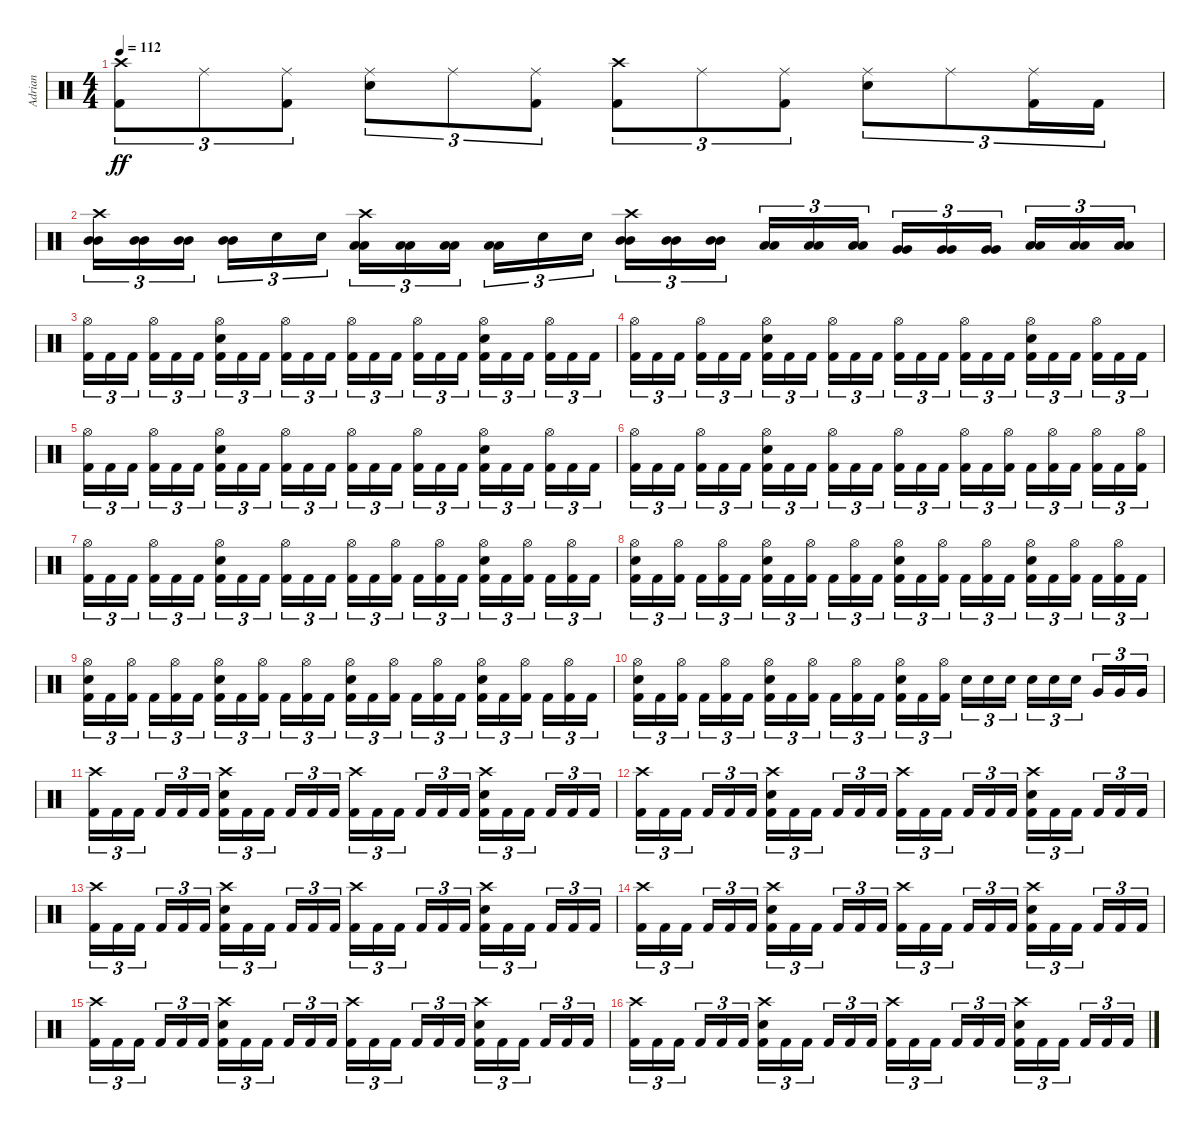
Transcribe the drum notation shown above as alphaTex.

\track ("Adrian" "Adrian") {instrument percussion}
\staff {score}
\articulation defaults
\ts (4 4)
\tempo 112
\clef neutral
\ks c
("Crash high (hit)" "Kick (hit) 2").8{tu (3 2) dy ff} "Ride (middle)".8{tu (3 2)} ("Ride (middle)" "Kick (hit) 2").8{tu (3 2)} ("Ride (middle)" "Electric Snare (hit)").8{tu (3 2)} "Ride (middle)".8{tu (3 2)} ("Ride (middle)" "Kick (hit) 2").8{tu (3 2)} ("Crash high (hit)" "Kick (hit) 2").8{tu (3 2)} "Ride (middle)".8{tu (3 2)} ("Ride (middle)" "Kick (hit) 2").8{tu (3 2)} ("Ride (middle)" "Electric Snare (hit)").8{tu (3 2)} "Ride (middle)".8{tu (3 2)} ("Ride (middle)" "Kick (hit) 2").16{tu (3 2)} "Kick (hit) 2".16{tu (3 2)} |
("Mid Tom (hit)" "Mid Tom (hit)" "Crash high (hit)").16{tu (3 2)} ("Mid Tom (hit)" "Mid Tom (hit)").16{tu (3 2)} ("Mid Tom (hit)" "Mid Tom (hit)").16{tu (3 2) beam splitsecondary} ("Mid Tom (hit)" "Mid Tom (hit)").16{tu (3 2)} "Electric Snare (hit)".16{tu (3 2)} "Electric Snare (hit)".16{tu (3 2)} ("Low Tom (hit)" "Low Tom (hit)" "Crash high (hit)").16{tu (3 2)} ("Low Tom (hit)" "Low Tom (hit)").16{tu (3 2)} ("Low Tom (hit)" "Low Tom (hit)").16{tu (3 2) beam splitsecondary} ("Low Tom (hit)" "Low Tom (hit)").16{tu (3 2)} "Electric Snare (hit)".16{tu (3 2)} "Electric Snare (hit)".16{tu (3 2)} ("Mid Tom (hit)" "Mid Tom (hit)" "Crash high (hit)").16{tu (3 2)} ("Mid Tom (hit)" "Mid Tom (hit)").16{tu (3 2)} ("Mid Tom (hit)" "Mid Tom (hit)").16{tu (3 2) beam splitsecondary} ("Low Tom (hit)" "Low Tom (hit)").16{tu (3 2)} ("Low Tom (hit)" "Low Tom (hit)").16{tu (3 2)} ("Low Tom (hit)" "Low Tom (hit)").16{tu (3 2)} ("Very Low Tom (hit)" "Very Low Tom (hit)").16{tu (3 2)} ("Very Low Tom (hit)" "Very Low Tom (hit)").16{tu (3 2)} ("Very Low Tom (hit)" "Very Low Tom (hit)").16{tu (3 2) beam splitsecondary} ("Low Floor Tom (hit)" "Low Floor Tom (hit)").16{tu (3 2)} ("Low Floor Tom (hit)" "Low Floor Tom (hit)").16{tu (3 2)} ("Low Floor Tom (hit)" "Low Floor Tom (hit)").16{tu (3 2)} |
("Hi-Hat (open)" "Kick (hit) 2").16{tu (3 2)} "Kick (hit) 2".16{tu (3 2)} "Kick (hit) 2".16{tu (3 2) beam splitsecondary} ("Hi-Hat (open)" "Kick (hit) 2").16{tu (3 2)} "Kick (hit) 2".16{tu (3 2)} "Kick (hit) 2".16{tu (3 2)} ("Hi-Hat (open)" "Electric Snare (hit)" "Kick (hit) 2").16{tu (3 2)} "Kick (hit) 2".16{tu (3 2)} "Kick (hit) 2".16{tu (3 2) beam splitsecondary} ("Hi-Hat (open)" "Kick (hit) 2").16{tu (3 2)} "Kick (hit) 2".16{tu (3 2)} "Kick (hit) 2".16{tu (3 2)} ("Hi-Hat (open)" "Kick (hit) 2").16{tu (3 2)} "Kick (hit) 2".16{tu (3 2)} "Kick (hit) 2".16{tu (3 2) beam splitsecondary} ("Hi-Hat (open)" "Kick (hit) 2").16{tu (3 2)} "Kick (hit) 2".16{tu (3 2)} "Kick (hit) 2".16{tu (3 2)} ("Hi-Hat (open)" "Electric Snare (hit)" "Kick (hit) 2").16{tu (3 2)} "Kick (hit) 2".16{tu (3 2)} "Kick (hit) 2".16{tu (3 2) beam splitsecondary} ("Hi-Hat (open)" "Kick (hit) 2").16{tu (3 2)} "Kick (hit) 2".16{tu (3 2)} "Kick (hit) 2".16{tu (3 2)} |
("Hi-Hat (open)" "Kick (hit) 2").16{tu (3 2)} "Kick (hit) 2".16{tu (3 2)} "Kick (hit) 2".16{tu (3 2) beam splitsecondary} ("Hi-Hat (open)" "Kick (hit) 2").16{tu (3 2)} "Kick (hit) 2".16{tu (3 2)} "Kick (hit) 2".16{tu (3 2)} ("Hi-Hat (open)" "Electric Snare (hit)" "Kick (hit) 2").16{tu (3 2)} "Kick (hit) 2".16{tu (3 2)} "Kick (hit) 2".16{tu (3 2) beam splitsecondary} ("Hi-Hat (open)" "Kick (hit) 2").16{tu (3 2)} "Kick (hit) 2".16{tu (3 2)} "Kick (hit) 2".16{tu (3 2)} ("Hi-Hat (open)" "Kick (hit) 2").16{tu (3 2)} "Kick (hit) 2".16{tu (3 2)} "Kick (hit) 2".16{tu (3 2) beam splitsecondary} ("Hi-Hat (open)" "Kick (hit) 2").16{tu (3 2)} "Kick (hit) 2".16{tu (3 2)} "Kick (hit) 2".16{tu (3 2)} ("Hi-Hat (open)" "Electric Snare (hit)" "Kick (hit) 2").16{tu (3 2)} "Kick (hit) 2".16{tu (3 2)} "Kick (hit) 2".16{tu (3 2) beam splitsecondary} ("Hi-Hat (open)" "Kick (hit) 2").16{tu (3 2)} "Kick (hit) 2".16{tu (3 2)} "Kick (hit) 2".16{tu (3 2)} |
("Hi-Hat (open)" "Kick (hit) 2").16{tu (3 2)} "Kick (hit) 2".16{tu (3 2)} "Kick (hit) 2".16{tu (3 2) beam splitsecondary} ("Hi-Hat (open)" "Kick (hit) 2").16{tu (3 2)} "Kick (hit) 2".16{tu (3 2)} "Kick (hit) 2".16{tu (3 2)} ("Hi-Hat (open)" "Electric Snare (hit)" "Kick (hit) 2").16{tu (3 2)} "Kick (hit) 2".16{tu (3 2)} "Kick (hit) 2".16{tu (3 2) beam splitsecondary} ("Hi-Hat (open)" "Kick (hit) 2").16{tu (3 2)} "Kick (hit) 2".16{tu (3 2)} "Kick (hit) 2".16{tu (3 2)} ("Hi-Hat (open)" "Kick (hit) 2").16{tu (3 2)} "Kick (hit) 2".16{tu (3 2)} "Kick (hit) 2".16{tu (3 2) beam splitsecondary} ("Hi-Hat (open)" "Kick (hit) 2").16{tu (3 2)} "Kick (hit) 2".16{tu (3 2)} "Kick (hit) 2".16{tu (3 2)} ("Hi-Hat (open)" "Electric Snare (hit)" "Kick (hit) 2").16{tu (3 2)} "Kick (hit) 2".16{tu (3 2)} "Kick (hit) 2".16{tu (3 2) beam splitsecondary} ("Hi-Hat (open)" "Kick (hit) 2").16{tu (3 2)} "Kick (hit) 2".16{tu (3 2)} "Kick (hit) 2".16{tu (3 2)} |
("Hi-Hat (open)" "Kick (hit) 2").16{tu (3 2)} "Kick (hit) 2".16{tu (3 2)} "Kick (hit) 2".16{tu (3 2) beam splitsecondary} ("Hi-Hat (open)" "Kick (hit) 2").16{tu (3 2)} "Kick (hit) 2".16{tu (3 2)} "Kick (hit) 2".16{tu (3 2)} ("Hi-Hat (open)" "Electric Snare (hit)" "Kick (hit) 2").16{tu (3 2)} "Kick (hit) 2".16{tu (3 2)} "Kick (hit) 2".16{tu (3 2) beam splitsecondary} ("Hi-Hat (open)" "Kick (hit) 2").16{tu (3 2)} "Kick (hit) 2".16{tu (3 2)} "Kick (hit) 2".16{tu (3 2)} ("Hi-Hat (open)" "Kick (hit) 2").16{tu (3 2)} "Kick (hit) 2".16{tu (3 2)} "Kick (hit) 2".16{tu (3 2) beam splitsecondary} ("Hi-Hat (open)" "Kick (hit) 2").16{tu (3 2)} "Kick (hit) 2".16{tu (3 2)} ("Hi-Hat (open)" "Kick (hit) 2").16{tu (3 2)} "Kick (hit) 2".16{tu (3 2)} ("Hi-Hat (open)" "Kick (hit) 2").16{tu (3 2)} "Kick (hit) 2".16{tu (3 2) beam splitsecondary} ("Hi-Hat (open)" "Kick (hit) 2").16{tu (3 2)} "Kick (hit) 2".16{tu (3 2)} ("Hi-Hat (open)" "Kick (hit) 2").16{tu (3 2)} |
("Hi-Hat (open)" "Kick (hit) 2").16{tu (3 2)} "Kick (hit) 2".16{tu (3 2)} "Kick (hit) 2".16{tu (3 2) beam splitsecondary} ("Hi-Hat (open)" "Kick (hit) 2").16{tu (3 2)} "Kick (hit) 2".16{tu (3 2)} "Kick (hit) 2".16{tu (3 2)} ("Hi-Hat (open)" "Electric Snare (hit)" "Kick (hit) 2").16{tu (3 2)} "Kick (hit) 2".16{tu (3 2)} "Kick (hit) 2".16{tu (3 2) beam splitsecondary} ("Hi-Hat (open)" "Kick (hit) 2").16{tu (3 2)} "Kick (hit) 2".16{tu (3 2)} "Kick (hit) 2".16{tu (3 2)} ("Hi-Hat (open)" "Kick (hit) 2").16{tu (3 2)} "Kick (hit) 2".16{tu (3 2)} ("Hi-Hat (open)" "Kick (hit) 2").16{tu (3 2) beam splitsecondary} "Kick (hit) 2".16{tu (3 2)} ("Hi-Hat (open)" "Kick (hit) 2").16{tu (3 2)} "Kick (hit) 2".16{tu (3 2)} ("Hi-Hat (open)" "Electric Snare (hit)" "Kick (hit) 2").16{tu (3 2)} "Kick (hit) 2".16{tu (3 2)} ("Hi-Hat (open)" "Kick (hit) 2").16{tu (3 2) beam splitsecondary} "Kick (hit) 2".16{tu (3 2)} ("Hi-Hat (open)" "Kick (hit) 2").16{tu (3 2)} "Kick (hit) 2".16{tu (3 2)} |
("Hi-Hat (open)" "Electric Snare (hit)" "Kick (hit) 2").16{tu (3 2)} "Kick (hit) 2".16{tu (3 2)} ("Hi-Hat (open)" "Kick (hit) 2").16{tu (3 2) beam splitsecondary} "Kick (hit) 2".16{tu (3 2)} ("Hi-Hat (open)" "Kick (hit) 2").16{tu (3 2)} "Kick (hit) 2".16{tu (3 2)} ("Hi-Hat (open)" "Electric Snare (hit)" "Kick (hit) 2").16{tu (3 2)} "Kick (hit) 2".16{tu (3 2)} ("Hi-Hat (open)" "Kick (hit) 2").16{tu (3 2) beam splitsecondary} "Kick (hit) 2".16{tu (3 2)} ("Hi-Hat (open)" "Kick (hit) 2").16{tu (3 2)} "Kick (hit) 2".16{tu (3 2)} ("Hi-Hat (open)" "Electric Snare (hit)" "Kick (hit) 2").16{tu (3 2)} "Kick (hit) 2".16{tu (3 2)} ("Hi-Hat (open)" "Kick (hit) 2").16{tu (3 2) beam splitsecondary} "Kick (hit) 2".16{tu (3 2)} ("Hi-Hat (open)" "Kick (hit) 2").16{tu (3 2)} "Kick (hit) 2".16{tu (3 2)} ("Hi-Hat (open)" "Electric Snare (hit)" "Kick (hit) 2").16{tu (3 2)} "Kick (hit) 2".16{tu (3 2)} ("Hi-Hat (open)" "Kick (hit) 2").16{tu (3 2) beam splitsecondary} "Kick (hit) 2".16{tu (3 2)} ("Hi-Hat (open)" "Kick (hit) 2").16{tu (3 2)} "Kick (hit) 2".16{tu (3 2)} |
("Hi-Hat (open)" "Electric Snare (hit)" "Kick (hit) 2").16{tu (3 2)} "Kick (hit) 2".16{tu (3 2)} ("Hi-Hat (open)" "Kick (hit) 2").16{tu (3 2) beam splitsecondary} "Kick (hit) 2".16{tu (3 2)} ("Hi-Hat (open)" "Kick (hit) 2").16{tu (3 2)} "Kick (hit) 2".16{tu (3 2)} ("Hi-Hat (open)" "Electric Snare (hit)" "Kick (hit) 2").16{tu (3 2)} "Kick (hit) 2".16{tu (3 2)} ("Hi-Hat (open)" "Kick (hit) 2").16{tu (3 2) beam splitsecondary} "Kick (hit) 2".16{tu (3 2)} ("Hi-Hat (open)" "Kick (hit) 2").16{tu (3 2)} "Kick (hit) 2".16{tu (3 2)} ("Hi-Hat (open)" "Electric Snare (hit)" "Kick (hit) 2").16{tu (3 2)} "Kick (hit) 2".16{tu (3 2)} ("Hi-Hat (open)" "Kick (hit) 2").16{tu (3 2) beam splitsecondary} "Kick (hit) 2".16{tu (3 2)} ("Hi-Hat (open)" "Kick (hit) 2").16{tu (3 2)} "Kick (hit) 2".16{tu (3 2)} ("Hi-Hat (open)" "Electric Snare (hit)" "Kick (hit) 2").16{tu (3 2)} "Kick (hit) 2".16{tu (3 2)} ("Hi-Hat (open)" "Kick (hit) 2").16{tu (3 2) beam splitsecondary} "Kick (hit) 2".16{tu (3 2)} ("Hi-Hat (open)" "Kick (hit) 2").16{tu (3 2)} "Kick (hit) 2".16{tu (3 2)} |
("Hi-Hat (open)" "Electric Snare (hit)" "Kick (hit) 2").16{tu (3 2)} "Kick (hit) 2".16{tu (3 2)} ("Hi-Hat (open)" "Kick (hit) 2").16{tu (3 2) beam splitsecondary} "Kick (hit) 2".16{tu (3 2)} ("Hi-Hat (open)" "Kick (hit) 2").16{tu (3 2)} "Kick (hit) 2".16{tu (3 2)} ("Hi-Hat (open)" "Electric Snare (hit)" "Kick (hit) 2").16{tu (3 2)} "Kick (hit) 2".16{tu (3 2)} ("Hi-Hat (open)" "Kick (hit) 2").16{tu (3 2) beam splitsecondary} "Kick (hit) 2".16{tu (3 2)} ("Hi-Hat (open)" "Kick (hit) 2").16{tu (3 2)} "Kick (hit) 2".16{tu (3 2)} ("Hi-Hat (open)" "Electric Snare (hit)" "Kick (hit) 2").16{tu (3 2)} "Kick (hit) 2".16{tu (3 2)} ("Hi-Hat (open)" "Kick (hit) 2").16{tu (3 2) beam splitsecondary} "Electric Snare (hit)".16{tu (3 2)} "Electric Snare (hit)".16{tu (3 2)} "Electric Snare (hit)".16{tu (3 2)} "Electric Snare (hit)".16{tu (3 2)} "Electric Snare (hit)".16{tu (3 2)} "Electric Snare (hit)".16{tu (3 2) beam splitsecondary} "Very Low Tom (hit)".16{tu (3 2)} "Very Low Tom (hit)".16{tu (3 2)} "Very Low Tom (hit)".16{tu (3 2)} |
("Crash high (hit)" "Kick (hit) 2").16{tu (3 2)} "Kick (hit) 2".16{tu (3 2)} "Kick (hit) 2".16{tu (3 2) beam splitsecondary} "Kick (hit) 2".16{tu (3 2)} "Kick (hit) 2".16{tu (3 2)} "Kick (hit) 2".16{tu (3 2)} ("Crash high (hit)" "Electric Snare (hit)" "Kick (hit) 2").16{tu (3 2)} "Kick (hit) 2".16{tu (3 2)} "Kick (hit) 2".16{tu (3 2) beam splitsecondary} "Kick (hit) 2".16{tu (3 2)} "Kick (hit) 2".16{tu (3 2)} "Kick (hit) 2".16{tu (3 2)} ("Crash high (hit)" "Kick (hit) 2").16{tu (3 2)} "Kick (hit) 2".16{tu (3 2)} "Kick (hit) 2".16{tu (3 2) beam splitsecondary} "Kick (hit) 2".16{tu (3 2)} "Kick (hit) 2".16{tu (3 2)} "Kick (hit) 2".16{tu (3 2)} ("Crash high (hit)" "Electric Snare (hit)" "Kick (hit) 2").16{tu (3 2)} "Kick (hit) 2".16{tu (3 2)} "Kick (hit) 2".16{tu (3 2) beam splitsecondary} "Kick (hit) 2".16{tu (3 2)} "Kick (hit) 2".16{tu (3 2)} "Kick (hit) 2".16{tu (3 2)} |
("Crash high (hit)" "Kick (hit) 2").16{tu (3 2)} "Kick (hit) 2".16{tu (3 2)} "Kick (hit) 2".16{tu (3 2) beam splitsecondary} "Kick (hit) 2".16{tu (3 2)} "Kick (hit) 2".16{tu (3 2)} "Kick (hit) 2".16{tu (3 2)} ("Crash high (hit)" "Electric Snare (hit)" "Kick (hit) 2").16{tu (3 2)} "Kick (hit) 2".16{tu (3 2)} "Kick (hit) 2".16{tu (3 2) beam splitsecondary} "Kick (hit) 2".16{tu (3 2)} "Kick (hit) 2".16{tu (3 2)} "Kick (hit) 2".16{tu (3 2)} ("Crash high (hit)" "Kick (hit) 2").16{tu (3 2)} "Kick (hit) 2".16{tu (3 2)} "Kick (hit) 2".16{tu (3 2) beam splitsecondary} "Kick (hit) 2".16{tu (3 2)} "Kick (hit) 2".16{tu (3 2)} "Kick (hit) 2".16{tu (3 2)} ("Crash high (hit)" "Electric Snare (hit)" "Kick (hit) 2").16{tu (3 2)} "Kick (hit) 2".16{tu (3 2)} "Kick (hit) 2".16{tu (3 2) beam splitsecondary} "Kick (hit) 2".16{tu (3 2)} "Kick (hit) 2".16{tu (3 2)} "Kick (hit) 2".16{tu (3 2)} |
("Crash high (hit)" "Kick (hit) 2").16{tu (3 2)} "Kick (hit) 2".16{tu (3 2)} "Kick (hit) 2".16{tu (3 2) beam splitsecondary} "Kick (hit) 2".16{tu (3 2)} "Kick (hit) 2".16{tu (3 2)} "Kick (hit) 2".16{tu (3 2)} ("Crash high (hit)" "Electric Snare (hit)" "Kick (hit) 2").16{tu (3 2)} "Kick (hit) 2".16{tu (3 2)} "Kick (hit) 2".16{tu (3 2) beam splitsecondary} "Kick (hit) 2".16{tu (3 2)} "Kick (hit) 2".16{tu (3 2)} "Kick (hit) 2".16{tu (3 2)} ("Crash high (hit)" "Kick (hit) 2").16{tu (3 2)} "Kick (hit) 2".16{tu (3 2)} "Kick (hit) 2".16{tu (3 2) beam splitsecondary} "Kick (hit) 2".16{tu (3 2)} "Kick (hit) 2".16{tu (3 2)} "Kick (hit) 2".16{tu (3 2)} ("Crash high (hit)" "Electric Snare (hit)" "Kick (hit) 2").16{tu (3 2)} "Kick (hit) 2".16{tu (3 2)} "Kick (hit) 2".16{tu (3 2) beam splitsecondary} "Kick (hit) 2".16{tu (3 2)} "Kick (hit) 2".16{tu (3 2)} "Kick (hit) 2".16{tu (3 2)} |
("Crash high (hit)" "Kick (hit) 2").16{tu (3 2)} "Kick (hit) 2".16{tu (3 2)} "Kick (hit) 2".16{tu (3 2) beam splitsecondary} "Kick (hit) 2".16{tu (3 2)} "Kick (hit) 2".16{tu (3 2)} "Kick (hit) 2".16{tu (3 2)} ("Crash high (hit)" "Electric Snare (hit)" "Kick (hit) 2").16{tu (3 2)} "Kick (hit) 2".16{tu (3 2)} "Kick (hit) 2".16{tu (3 2) beam splitsecondary} "Kick (hit) 2".16{tu (3 2)} "Kick (hit) 2".16{tu (3 2)} "Kick (hit) 2".16{tu (3 2)} ("Crash high (hit)" "Kick (hit) 2").16{tu (3 2)} "Kick (hit) 2".16{tu (3 2)} "Kick (hit) 2".16{tu (3 2) beam splitsecondary} "Kick (hit) 2".16{tu (3 2)} "Kick (hit) 2".16{tu (3 2)} "Kick (hit) 2".16{tu (3 2)} ("Crash high (hit)" "Electric Snare (hit)" "Kick (hit) 2").16{tu (3 2)} "Kick (hit) 2".16{tu (3 2)} "Kick (hit) 2".16{tu (3 2) beam splitsecondary} "Kick (hit) 2".16{tu (3 2)} "Kick (hit) 2".16{tu (3 2)} "Kick (hit) 2".16{tu (3 2)} |
("Crash high (hit)" "Kick (hit) 2").16{tu (3 2)} "Kick (hit) 2".16{tu (3 2)} "Kick (hit) 2".16{tu (3 2) beam splitsecondary} "Kick (hit) 2".16{tu (3 2)} "Kick (hit) 2".16{tu (3 2)} "Kick (hit) 2".16{tu (3 2)} ("Crash high (hit)" "Electric Snare (hit)" "Kick (hit) 2").16{tu (3 2)} "Kick (hit) 2".16{tu (3 2)} "Kick (hit) 2".16{tu (3 2) beam splitsecondary} "Kick (hit) 2".16{tu (3 2)} "Kick (hit) 2".16{tu (3 2)} "Kick (hit) 2".16{tu (3 2)} ("Crash high (hit)" "Kick (hit) 2").16{tu (3 2)} "Kick (hit) 2".16{tu (3 2)} "Kick (hit) 2".16{tu (3 2) beam splitsecondary} "Kick (hit) 2".16{tu (3 2)} "Kick (hit) 2".16{tu (3 2)} "Kick (hit) 2".16{tu (3 2)} ("Crash high (hit)" "Electric Snare (hit)" "Kick (hit) 2").16{tu (3 2)} "Kick (hit) 2".16{tu (3 2)} "Kick (hit) 2".16{tu (3 2) beam splitsecondary} "Kick (hit) 2".16{tu (3 2)} "Kick (hit) 2".16{tu (3 2)} "Kick (hit) 2".16{tu (3 2)} |
("Crash high (hit)" "Kick (hit) 2").16{tu (3 2)} "Kick (hit) 2".16{tu (3 2)} "Kick (hit) 2".16{tu (3 2) beam splitsecondary} "Kick (hit) 2".16{tu (3 2)} "Kick (hit) 2".16{tu (3 2)} "Kick (hit) 2".16{tu (3 2)} ("Crash high (hit)" "Electric Snare (hit)" "Kick (hit) 2").16{tu (3 2)} "Kick (hit) 2".16{tu (3 2)} "Kick (hit) 2".16{tu (3 2) beam splitsecondary} "Kick (hit) 2".16{tu (3 2)} "Kick (hit) 2".16{tu (3 2)} "Kick (hit) 2".16{tu (3 2)} ("Crash high (hit)" "Kick (hit) 2").16{tu (3 2)} "Kick (hit) 2".16{tu (3 2)} "Kick (hit) 2".16{tu (3 2) beam splitsecondary} "Kick (hit) 2".16{tu (3 2)} "Kick (hit) 2".16{tu (3 2)} "Kick (hit) 2".16{tu (3 2)} ("Crash high (hit)" "Electric Snare (hit)" "Kick (hit) 2").16{tu (3 2)} "Kick (hit) 2".16{tu (3 2)} "Kick (hit) 2".16{tu (3 2) beam splitsecondary} "Kick (hit) 2".16{tu (3 2)} "Kick (hit) 2".16{tu (3 2)} "Kick (hit) 2".16{tu (3 2)}
